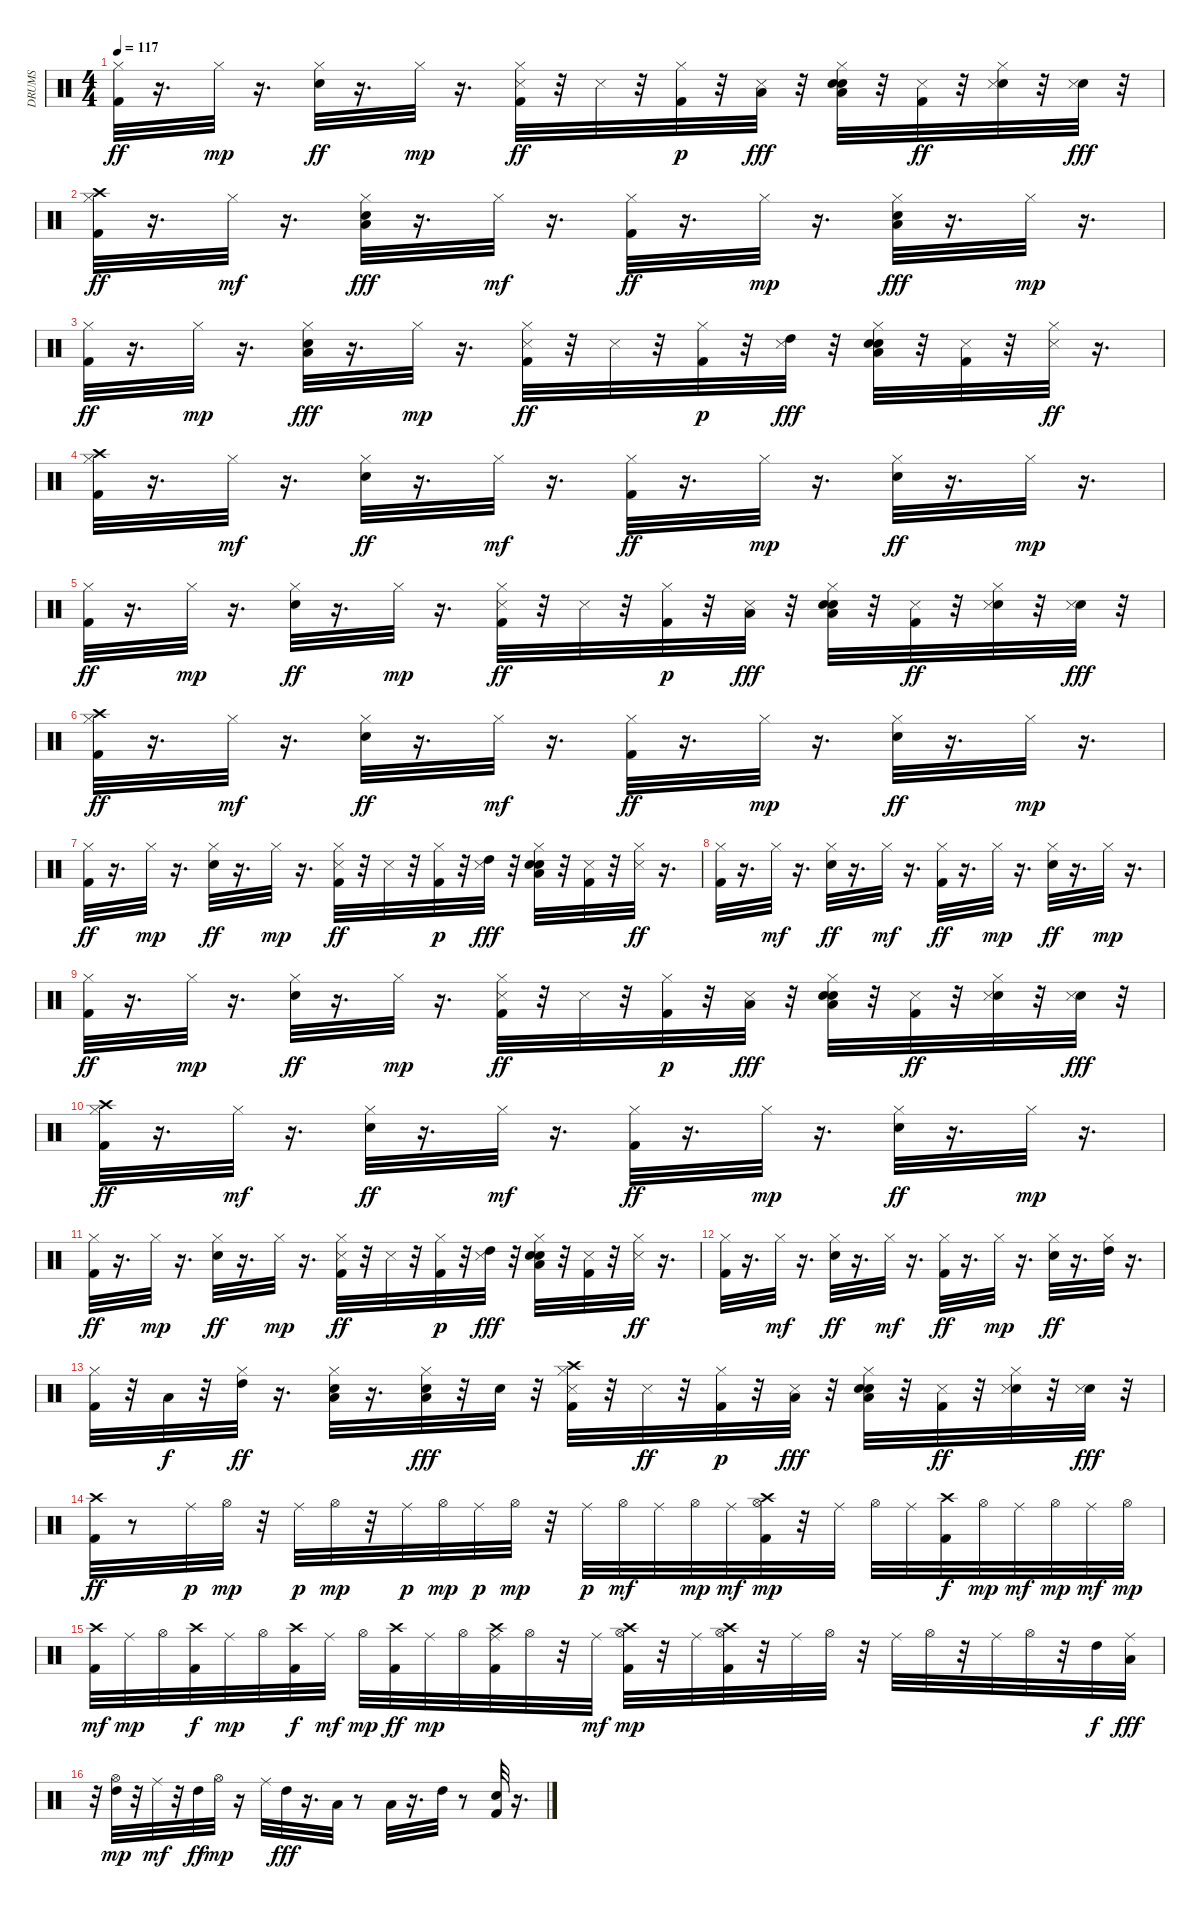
\track ("DRUMS" "DRUMS") {instrument percussion}
\staff {score}
\articulation defaults
\ts (4 4)
\tempo 117
\clef neutral
\ks c
("Kick (hit) 2" "Hi-Hat (closed)").32{dy ff} r.16{d} "Hi-Hat (closed)".32{dy mp} r.16{d} ("Snare (hit) 2" "Hi-Hat (closed)").32{dy ff} r.16{d} "Hi-Hat (closed)".32{dy mp} r.16{d} ("Kick (hit) 2" "Hi-Hat (closed)" "Snare (side stick) 3").32{dy ff} r.32 "Snare (side stick) 3".32 r.32 ("Kick (hit) 2" "Hi-Hat (closed)").32{dy p} r.32 ("Low Tom (hit)" "Snare (side stick) 3").32{dy fff} r.32 ("Snare (hit) 2" "Hi-Hat (closed)" "Low Floor Tom (hit)" "Hand Clap (hit)").32 r.32 ("Kick (hit) 2" "Snare (side stick) 3").32{dy ff} r.32 ("Snare (hit) 2" "Hi-Hat (closed)" "Snare (side stick) 3").32 r.32 ("Snare (hit) 2" "Snare (side stick) 3").32{dy fff} r.32 |
("Crash high (hit)" "Kick (hit) 2" "Hi-Hat (closed)").32{dy ff} r.16{d} "Hi-Hat (closed)".32{dy mf} r.16{d} ("Snare (hit) 2" "Hi-Hat (closed)" "Low Tom (hit)").32{dy fff} r.16{d} "Hi-Hat (closed)".32{dy mf} r.16{d} ("Kick (hit) 2" "Hi-Hat (closed)").32{dy ff} r.16{d} "Hi-Hat (closed)".32{dy mp} r.16{d} ("Snare (hit) 2" "Hi-Hat (closed)" "Low Tom (hit)").32{dy fff} r.16{d} "Hi-Hat (closed)".32{dy mp} r.16{d} |
("Kick (hit) 2" "Hi-Hat (closed)").32{dy ff} r.16{d} "Hi-Hat (closed)".32{dy mp} r.16{d} ("Snare (hit) 2" "Hi-Hat (closed)" "Low Tom (hit)").32{dy fff} r.16{d} "Hi-Hat (closed)".32{dy mp} r.16{d} ("Kick (hit) 2" "Hi-Hat (closed)" "Snare (side stick) 3").32{dy ff} r.32 "Snare (side stick) 3".32 r.32 ("Kick (hit) 2" "Hi-Hat (closed)").32{dy p} r.32 ("High Tom (hit)" "Snare (side stick) 3").32{dy fff} r.32 ("Snare (hit) 2" "Hi-Hat (closed)" "Low Tom (hit)" "Hand Clap (hit)").32 r.32 ("Kick (hit) 2" "Snare (side stick) 3").32 r.32 ("Hi-Hat (closed)" "Snare (side stick) 3").32{dy ff} r.16{d} |
("Kick (hit) 2" "Hi-Hat (closed)" "Crash high (hit)").32 r.16{d} "Hi-Hat (closed)".32{dy mf} r.16{d} ("Snare (hit) 2" "Hi-Hat (closed)").32{dy ff} r.16{d} "Hi-Hat (closed)".32{dy mf} r.16{d} ("Kick (hit) 2" "Hi-Hat (closed)").32{dy ff} r.16{d} "Hi-Hat (closed)".32{dy mp} r.16{d} ("Snare (hit) 2" "Hi-Hat (closed)").32{dy ff} r.16{d} "Hi-Hat (closed)".32{dy mp} r.16{d} |
("Kick (hit) 2" "Hi-Hat (closed)").32{dy ff} r.16{d} "Hi-Hat (closed)".32{dy mp} r.16{d} ("Snare (hit) 2" "Hi-Hat (closed)").32{dy ff} r.16{d} "Hi-Hat (closed)".32{dy mp} r.16{d} ("Kick (hit) 2" "Hi-Hat (closed)" "Snare (side stick) 3").32{dy ff} r.32 "Snare (side stick) 3".32 r.32 ("Kick (hit) 2" "Hi-Hat (closed)").32{dy p} r.32 ("Low Tom (hit)" "Snare (side stick) 3").32{dy fff} r.32 ("Snare (hit) 2" "Hi-Hat (closed)" "Low Floor Tom (hit)" "Hand Clap (hit)").32 r.32 ("Kick (hit) 2" "Snare (side stick) 3").32{dy ff} r.32 ("Snare (hit) 2" "Hi-Hat (closed)" "Snare (side stick) 3").32 r.32 ("Snare (hit) 2" "Snare (side stick) 3").32{dy fff} r.32 |
("Crash high (hit)" "Kick (hit) 2" "Hi-Hat (closed)").32{dy ff} r.16{d} "Hi-Hat (closed)".32{dy mf} r.16{d} ("Snare (hit) 2" "Hi-Hat (closed)").32{dy ff} r.16{d} "Hi-Hat (closed)".32{dy mf} r.16{d} ("Kick (hit) 2" "Hi-Hat (closed)").32{dy ff} r.16{d} "Hi-Hat (closed)".32{dy mp} r.16{d} ("Snare (hit) 2" "Hi-Hat (closed)").32{dy ff} r.16{d} "Hi-Hat (closed)".32{dy mp} r.16{d} |
("Kick (hit) 2" "Hi-Hat (closed)").32{dy ff} r.16{d} "Hi-Hat (closed)".32{dy mp} r.16{d} ("Snare (hit) 2" "Hi-Hat (closed)").32{dy ff} r.16{d} "Hi-Hat (closed)".32{dy mp} r.16{d} ("Kick (hit) 2" "Hi-Hat (closed)" "Snare (side stick) 3").32{dy ff} r.32 "Snare (side stick) 3".32 r.32 ("Kick (hit) 2" "Hi-Hat (closed)").32{dy p} r.32 ("High Tom (hit)" "Snare (side stick) 3").32{dy fff} r.32 ("Snare (hit) 2" "Hi-Hat (closed)" "Low Tom (hit)" "Hand Clap (hit)").32 r.32 ("Kick (hit) 2" "Snare (side stick) 3").32 r.32 ("Hi-Hat (closed)" "Snare (side stick) 3").32{dy ff} r.16{d} |
("Kick (hit) 2" "Hi-Hat (closed)").32 r.16{d} "Hi-Hat (closed)".32{dy mf} r.16{d} ("Snare (hit) 2" "Hi-Hat (closed)").32{dy ff} r.16{d} "Hi-Hat (closed)".32{dy mf} r.16{d} ("Kick (hit) 2" "Hi-Hat (closed)").32{dy ff} r.16{d} "Hi-Hat (closed)".32{dy mp} r.16{d} ("Snare (hit) 2" "Hi-Hat (closed)").32{dy ff} r.16{d} "Hi-Hat (closed)".32{dy mp} r.16{d} |
("Kick (hit) 2" "Hi-Hat (closed)").32{dy ff} r.16{d} "Hi-Hat (closed)".32{dy mp} r.16{d} ("Snare (hit) 2" "Hi-Hat (closed)").32{dy ff} r.16{d} "Hi-Hat (closed)".32{dy mp} r.16{d} ("Kick (hit) 2" "Hi-Hat (closed)" "Snare (side stick) 3").32{dy ff} r.32 "Snare (side stick) 3".32 r.32 ("Kick (hit) 2" "Hi-Hat (closed)").32{dy p} r.32 ("Low Tom (hit)" "Snare (side stick) 3").32{dy fff} r.32 ("Snare (hit) 2" "Hi-Hat (closed)" "Low Floor Tom (hit)" "Hand Clap (hit)").32 r.32 ("Kick (hit) 2" "Snare (side stick) 3").32{dy ff} r.32 ("Snare (hit) 2" "Hi-Hat (closed)" "Snare (side stick) 3").32 r.32 ("Snare (hit) 2" "Snare (side stick) 3").32{dy fff} r.32 |
("Crash high (hit)" "Kick (hit) 2" "Hi-Hat (closed)").32{dy ff} r.16{d} "Hi-Hat (closed)".32{dy mf} r.16{d} ("Snare (hit) 2" "Hi-Hat (closed)").32{dy ff} r.16{d} "Hi-Hat (closed)".32{dy mf} r.16{d} ("Kick (hit) 2" "Hi-Hat (closed)").32{dy ff} r.16{d} "Hi-Hat (closed)".32{dy mp} r.16{d} ("Snare (hit) 2" "Hi-Hat (closed)").32{dy ff} r.16{d} "Hi-Hat (closed)".32{dy mp} r.16{d} |
("Kick (hit) 2" "Hi-Hat (closed)").32{dy ff} r.16{d} "Hi-Hat (closed)".32{dy mp} r.16{d} ("Snare (hit) 2" "Hi-Hat (closed)").32{dy ff} r.16{d} "Hi-Hat (closed)".32{dy mp} r.16{d} ("Kick (hit) 2" "Hi-Hat (closed)" "Snare (side stick) 3").32{dy ff} r.32 "Snare (side stick) 3".32 r.32 ("Kick (hit) 2" "Hi-Hat (closed)").32{dy p} r.32 ("High Tom (hit)" "Snare (side stick) 3").32{dy fff} r.32 ("Snare (hit) 2" "Hi-Hat (closed)" "Low Tom (hit)" "Hand Clap (hit)").32 r.32 ("Kick (hit) 2" "Snare (side stick) 3").32 r.32 ("Hi-Hat (closed)" "Snare (side stick) 3").32{dy ff} r.16{d} |
("Kick (hit) 2" "Hi-Hat (closed)").32 r.16{d} "Hi-Hat (closed)".32{dy mf} r.16{d} ("Snare (hit) 2" "Hi-Hat (closed)").32{dy ff} r.16{d} "Hi-Hat (closed)".32{dy mf} r.16{d} ("Kick (hit) 2" "Hi-Hat (closed)").32{dy ff} r.16{d} "Hi-Hat (closed)".32{dy mp} r.16{d} ("Snare (hit) 2" "Hi-Hat (closed)").32{dy ff} r.16{d} ("Hi-Hat (closed)" "High Tom (hit)").32 r.16{d} |
("Kick (hit) 2" "Hi-Hat (closed)").32 r.32 "Low Tom (hit)".32{dy f} r.32 ("Hi-Hat (closed)" "High Tom (hit)").32{dy ff} r.16{d} ("Snare (hit) 2" "Hi-Hat (closed)" "Low Tom (hit)").32 r.16{d} ("Snare (hit) 2" "Hi-Hat (closed)" "Low Floor Tom (hit)").32{dy fff} r.32 "Snare (hit) 2".32 r.32 ("Kick (hit) 2" "Hi-Hat (closed)" "Snare (side stick) 3" "Crash high (hit)").32 r.32 "Snare (side stick) 3".32{dy ff} r.32 ("Kick (hit) 2" "Hi-Hat (closed)").32{dy p} r.32 ("Low Tom (hit)" "Snare (side stick) 3").32{dy fff} r.32 ("Snare (hit) 2" "Hi-Hat (closed)" "Low Floor Tom (hit)" "Hand Clap (hit)").32 r.32 ("Kick (hit) 2" "Snare (side stick) 3").32{dy ff} r.32 ("Snare (hit) 2" "Hi-Hat (closed)" "Snare (side stick) 3").32 r.32 ("Snare (hit) 2" "Snare (side stick) 3").32{dy fff} r.32 |
("Crash high (hit)" "Kick (hit) 2").32{dy ff} r.8 "Ride (middle)".32{dy p} "Hi-Hat (open)".32{dy mp} r.32 "Ride (middle)".32{dy p} "Hi-Hat (open)".32{dy mp} r.32 "Ride (middle)".32{dy p} "Hi-Hat (open)".32{dy mp} "Ride (middle)".32{dy p} "Hi-Hat (open)".32{dy mp} r.32 "Ride (middle)".32{dy p} "Hi-Hat (open)".32{dy mf} "Ride (middle)".32 "Hi-Hat (open)".32{dy mp} "Ride (middle)".32{dy mf} ("Kick (hit) 2" "Hi-Hat (open)" "Crash high (hit)").32{dy mp} r.32 "Ride (middle)".32 "Hi-Hat (open)".32 "Ride (middle)".32 ("Kick (hit) 2" "Crash high (hit)").32{dy f} "Hi-Hat (open)".32{dy mp} "Ride (middle)".32{dy mf} "Hi-Hat (open)".32{dy mp} "Ride (middle)".32{dy mf} "Hi-Hat (open)".32{dy mp} |
("Crash high (hit)" "Kick (hit) 2").32{dy mf} "Ride (middle)".32{dy mp} "Hi-Hat (open)".32 ("Crash high (hit)" "Kick (hit) 2").32{dy f} "Ride (middle)".32{dy mp} "Hi-Hat (open)".32 ("Crash high (hit)" "Kick (hit) 2").32{dy f} "Ride (middle)".32{dy mf} "Hi-Hat (open)".32{dy mp} ("Crash high (hit)" "Kick (hit) 2").32{dy ff} "Ride (middle)".32{dy mp} "Hi-Hat (open)".32 ("Crash high (hit)" "Kick (hit) 2" "Ride (middle)").32 "Hi-Hat (open)".32 r.32 "Ride (middle)".32{dy mf} ("Crash high (hit)" "Kick (hit) 2" "Hi-Hat (open)").32{dy mp} r.32 "Ride (middle)".32 ("Crash high (hit)" "Kick (hit) 2" "Hi-Hat (open)").32 r.32 "Ride (middle)".32 "Hi-Hat (open)".32 r.32 "Ride (middle)".32 "Hi-Hat (open)".32 r.32 "Ride (middle)".32 "Hi-Hat (open)".32 r.32 "High Tom (hit)".32{dy f} ("Ride (middle)" "Low Tom (hit)").32{dy fff} |
r.32 ("High Tom (hit)" "Hi-Hat (open)").32{dy mp} r.32 "Ride (middle)".32{dy mf} r.32 "High Tom (hit)".32{dy ff} "Hi-Hat (open)".32{dy mp} r.16 "Ride (middle)".32 "High Tom (hit)".32{dy fff} r.16{d} "Low Tom (hit)".32 r.8 "Low Floor Tom (hit)".32 r.16{d} "High Tom (hit)".32 r.8 ("Kick (hit) 2" "Snare (hit) 2").32 r.16{d}
